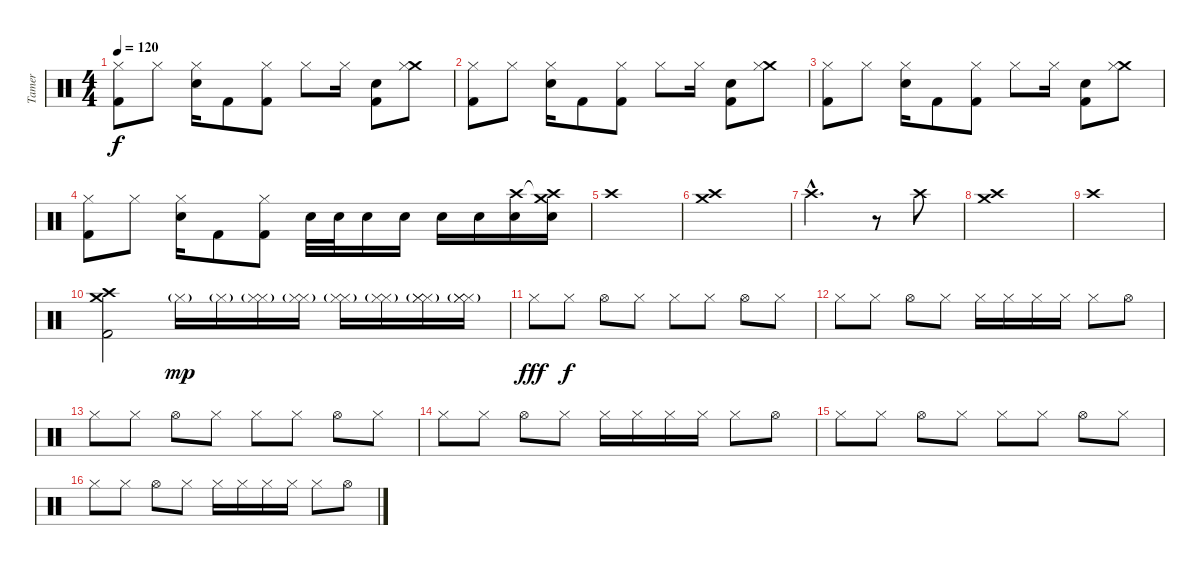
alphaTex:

\track ("Tamer" "Tamer") {instrument percussion}
\staff {score}
\articulation defaults
\ts (4 4)
\tempo 120
\clef neutral
\ks c
("Hi-Hat (closed)" "Kick (hit) 2").8{dy f} "Hi-Hat (closed)".8 ("Electric Snare (hit)" "Hi-Hat (closed)").16 "Kick (hit) 2".8 ("Hi-Hat (closed)" "Kick (hit) 2").8 "Hi-Hat (closed)".8 "Hi-Hat (closed)".16 ("Electric Snare (hit)" "Kick (hit) 2").8 ("Crash medium (hit)" "Hi-Hat (closed)").8 |
("Hi-Hat (closed)" "Kick (hit) 2").8 "Hi-Hat (closed)".8 ("Electric Snare (hit)" "Hi-Hat (closed)").16 "Kick (hit) 2".8 ("Hi-Hat (closed)" "Kick (hit) 2").8 "Hi-Hat (closed)".8 "Hi-Hat (closed)".16 ("Electric Snare (hit)" "Kick (hit) 2").8 ("Crash medium (hit)" "Hi-Hat (closed)").8 |
("Hi-Hat (closed)" "Kick (hit) 2").8 "Hi-Hat (closed)".8 ("Electric Snare (hit)" "Hi-Hat (closed)").16 "Kick (hit) 2".8 ("Hi-Hat (closed)" "Kick (hit) 2").8 "Hi-Hat (closed)".8 "Hi-Hat (closed)".16 ("Electric Snare (hit)" "Kick (hit) 2").8 ("Crash medium (hit)" "Hi-Hat (closed)").8 |
("Hi-Hat (closed)" "Kick (hit) 2").8 "Hi-Hat (closed)".8 ("Electric Snare (hit)" "Hi-Hat (closed)").16 "Kick (hit) 2".8 ("Hi-Hat (closed)" "Kick (hit) 2").8 "Electric Snare (hit)".32 "Electric Snare (hit)".32 "Electric Snare (hit)".16 "Electric Snare (hit)".16 "Electric Snare (hit)".16 "Electric Snare (hit)".16 ("Crash high (hit)" "Electric Snare (hit)").16 ("Crash high (hit)"{t} "Electric Snare (hit)" "Crash medium (hit)").16 |
"Crash high (hit)".1 |
("Crash medium (hit)" "Crash high (hit)").1 |
"Crash high (hit)"{hac}.2{d} r.8 "Crash high (hit)".8 |
("Crash medium (hit)" "Crash high (hit)").1 |
"Crash high (hit)".1 |
("Crash medium (hit)" "Crash high (hit)" "Kick (hit) 2").2 "Hi-Hat (closed)"{g}.16{dy mp} "Hi-Hat (closed)"{g}.16 ("Hi-Hat (closed)"{g} "Hi-Hat (closed)"{g}).16 ("Hi-Hat (closed)"{g} "Hi-Hat (closed)"{g}).16 ("Hi-Hat (closed)"{g} "Hi-Hat (closed)"{g}).16 ("Hi-Hat (closed)"{g} "Hi-Hat (closed)"{g}).16 ("Hi-Hat (closed)"{g} "Hi-Hat (closed)"{g} "Hi-Hat (closed)"{g}).16 ("Hi-Hat (closed)"{g} "Hi-Hat (closed)"{g} "Hi-Hat (closed)"{g}).16 |
"Hi-Hat (closed)".8{dy fff} "Hi-Hat (closed)".8{dy f} "Hi-Hat (open)".8 "Hi-Hat (closed)".8 "Hi-Hat (closed)".8 "Hi-Hat (closed)".8 "Hi-Hat (open)".8 "Hi-Hat (closed)".8 |
"Hi-Hat (closed)".8 "Hi-Hat (closed)".8 "Hi-Hat (open)".8 "Hi-Hat (closed)".8 "Hi-Hat (closed)".16 "Hi-Hat (closed)".16 "Hi-Hat (closed)".16 "Hi-Hat (closed)".16 "Hi-Hat (closed)".8 "Hi-Hat (open)".8 |
"Hi-Hat (closed)".8 "Hi-Hat (closed)".8 "Hi-Hat (open)".8 "Hi-Hat (closed)".8 "Hi-Hat (closed)".8 "Hi-Hat (closed)".8 "Hi-Hat (open)".8 "Hi-Hat (closed)".8 |
"Hi-Hat (closed)".8 "Hi-Hat (closed)".8 "Hi-Hat (open)".8 "Hi-Hat (closed)".8 "Hi-Hat (closed)".16 "Hi-Hat (closed)".16 "Hi-Hat (closed)".16 "Hi-Hat (closed)".16 "Hi-Hat (closed)".8 "Hi-Hat (open)".8 |
"Hi-Hat (closed)".8 "Hi-Hat (closed)".8 "Hi-Hat (open)".8 "Hi-Hat (closed)".8 "Hi-Hat (closed)".8 "Hi-Hat (closed)".8 "Hi-Hat (open)".8 "Hi-Hat (closed)".8 |
"Hi-Hat (closed)".8 "Hi-Hat (closed)".8 "Hi-Hat (open)".8 "Hi-Hat (closed)".8 "Hi-Hat (closed)".16 "Hi-Hat (closed)".16 "Hi-Hat (closed)".16 "Hi-Hat (closed)".16 "Hi-Hat (closed)".8 "Hi-Hat (open)".8
